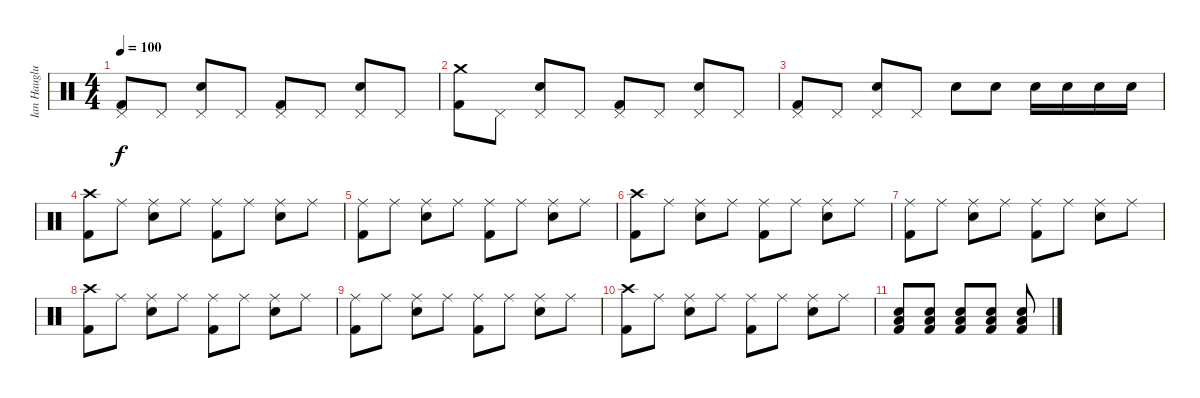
\track ("Ian Hauglund" "Ian Hauglu") {instrument percussion}
\staff {score}
\articulation defaults
\ts (4 4)
\tempo 100
\clef neutral
\ks c
("Kick (hit) 2" "Pedal Hi-Hat (hit)").8{dy f} "Pedal Hi-Hat (hit)".8 ("Electric Snare (hit)" "Pedal Hi-Hat (hit)").8 "Pedal Hi-Hat (hit)".8 ("Kick (hit) 2" "Pedal Hi-Hat (hit)").8 "Pedal Hi-Hat (hit)".8 ("Electric Snare (hit)" "Pedal Hi-Hat (hit)").8 "Pedal Hi-Hat (hit)".8 |
("Kick (hit) 2" "Crash medium (hit)").8 "Pedal Hi-Hat (hit)".8 ("Electric Snare (hit)" "Pedal Hi-Hat (hit)").8 "Pedal Hi-Hat (hit)".8 ("Kick (hit) 2" "Pedal Hi-Hat (hit)").8 "Pedal Hi-Hat (hit)".8 ("Electric Snare (hit)" "Pedal Hi-Hat (hit)").8 "Pedal Hi-Hat (hit)".8 |
("Kick (hit) 2" "Pedal Hi-Hat (hit)").8 "Pedal Hi-Hat (hit)".8 ("Electric Snare (hit)" "Pedal Hi-Hat (hit)").8 "Pedal Hi-Hat (hit)".8 "Electric Snare (hit)".8 "Electric Snare (hit)".8 "Electric Snare (hit)".16 "Electric Snare (hit)".16 "Electric Snare (hit)".16 "Electric Snare (hit)".16 |
("Kick (hit) 2" "Crash high (hit)").8 "Ride (middle)".8 ("Electric Snare (hit)" "Ride (middle)").8 "Ride (middle)".8 ("Kick (hit) 2" "Ride (middle)").8 "Ride (middle)".8 ("Electric Snare (hit)" "Ride (middle)").8 "Ride (middle)".8 |
("Kick (hit) 2" "Ride (middle)").8 "Ride (middle)".8 ("Electric Snare (hit)" "Ride (middle)").8 "Ride (middle)".8 ("Kick (hit) 2" "Ride (middle)").8 "Ride (middle)".8 ("Electric Snare (hit)" "Ride (middle)").8 "Ride (middle)".8 |
("Kick (hit) 2" "Crash high (hit)").8 "Ride (middle)".8 ("Electric Snare (hit)" "Ride (middle)").8 "Ride (middle)".8 ("Kick (hit) 2" "Ride (middle)").8 "Ride (middle)".8 ("Electric Snare (hit)" "Ride (middle)").8 "Ride (middle)".8 |
("Kick (hit) 2" "Ride (middle)").8 "Ride (middle)".8 ("Electric Snare (hit)" "Ride (middle)").8 "Ride (middle)".8 ("Kick (hit) 2" "Ride (middle)").8 "Ride (middle)".8 ("Electric Snare (hit)" "Ride (middle)").8 "Ride (middle)".8 |
("Kick (hit) 2" "Crash high (hit)").8 "Ride (middle)".8 ("Electric Snare (hit)" "Ride (middle)").8 "Ride (middle)".8 ("Kick (hit) 2" "Ride (middle)").8 "Ride (middle)".8 ("Electric Snare (hit)" "Ride (middle)").8 "Ride (middle)".8 |
("Kick (hit) 2" "Ride (middle)").8 "Ride (middle)".8 ("Electric Snare (hit)" "Ride (middle)").8 "Ride (middle)".8 ("Kick (hit) 2" "Ride (middle)").8 "Ride (middle)".8 ("Electric Snare (hit)" "Ride (middle)").8 "Ride (middle)".8 |
("Kick (hit) 2" "Crash high (hit)").8 "Ride (middle)".8 ("Electric Snare (hit)" "Ride (middle)").8 "Ride (middle)".8 ("Kick (hit) 2" "Ride (middle)").8 "Ride (middle)".8 ("Electric Snare (hit)" "Ride (middle)").8 "Ride (middle)".8 |
("Electric Snare (hit)" "Kick (hit) 2" "Low Floor Tom (hit)").8 ("Electric Snare (hit)" "Kick (hit) 2" "Low Floor Tom (hit)").8 ("Electric Snare (hit)" "Kick (hit) 2" "Low Floor Tom (hit)").8 ("Electric Snare (hit)" "Kick (hit) 2" "Low Floor Tom (hit)").8 ("Electric Snare (hit)" "Kick (hit) 2" "Low Floor Tom (hit)").8
